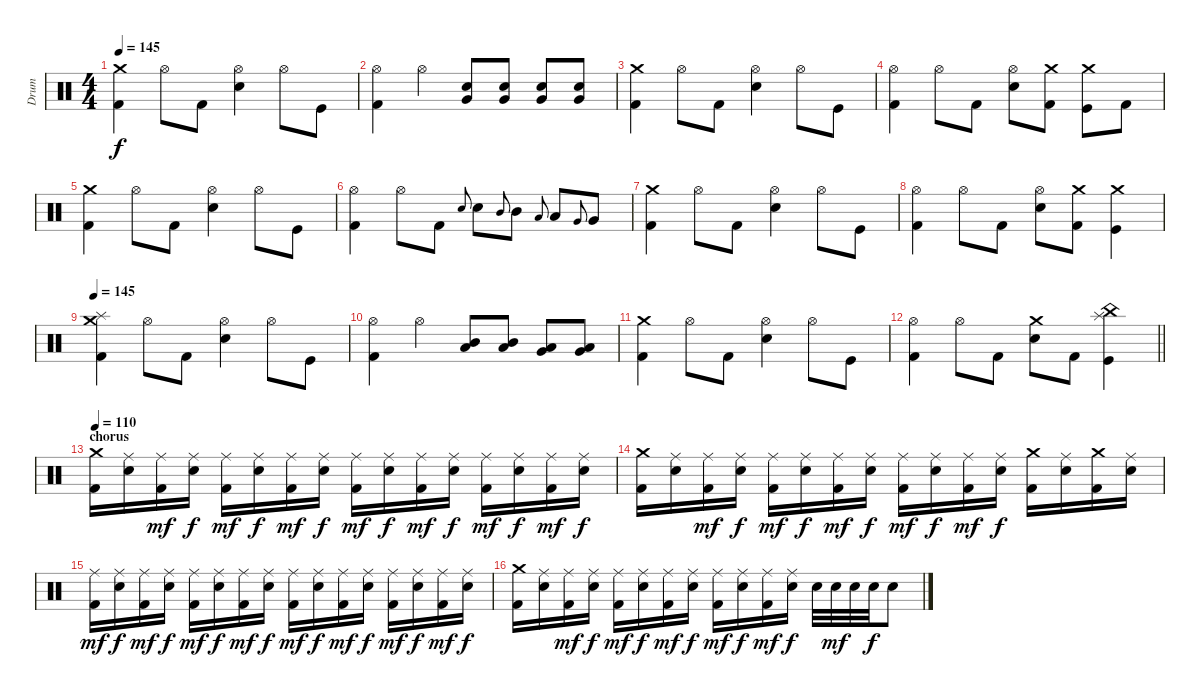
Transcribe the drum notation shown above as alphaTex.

\track ("Drum" "Drum") {instrument percussion}
\staff {score}
\articulation defaults
\ts (4 4)
\tempo 145
\clef neutral
\ks c
("Crash medium (hit)" "Kick (hit) 2").4{dy f} "Hi-Hat (open)".8 "Kick (hit) 2".8 ("Hi-Hat (open)" "Snare (hit) 2").4 "Hi-Hat (open)".8 "Kick (hit)".8 |
("Hi-Hat (open)" "Kick (hit) 2").4 "Hi-Hat (open)".4 ("Snare (hit) 2" "Very Low Tom (hit)").8 ("Snare (hit) 2" "Very Low Tom (hit)").8 ("Snare (hit) 2" "Very Low Tom (hit)").8 ("Snare (hit) 2" "Very Low Tom (hit)").8 |
("Crash medium (hit)" "Kick (hit) 2").4 "Hi-Hat (open)".8 "Kick (hit) 2".8 ("Hi-Hat (open)" "Snare (hit) 2").4 "Hi-Hat (open)".8 "Kick (hit)".8 |
("Hi-Hat (open)" "Kick (hit) 2").4 "Hi-Hat (open)".8 "Kick (hit) 2".8 ("Hi-Hat (open)" "Snare (hit) 2").8 ("Crash medium (hit)" "Kick (hit) 2").8 ("Crash medium (hit)" "Kick (hit)").8 "Kick (hit) 2".8 |
("Crash medium (hit)" "Kick (hit) 2").4 "Hi-Hat (open)".8 "Kick (hit) 2".8 ("Hi-Hat (open)" "Snare (hit) 2").4 "Hi-Hat (open)".8 "Kick (hit)".8 |
("Hi-Hat (open)" "Kick (hit) 2").4 "Hi-Hat (open)".8 "Kick (hit) 2".8 "Snare (hit) 2".8{gr onbeat} "Snare (hit) 2".8 "Mid Tom (hit)".8{gr onbeat} "Mid Tom (hit)".8 "Low Tom (hit)".8{gr onbeat} "Low Tom (hit)".8 "Very Low Tom (hit)".8{gr onbeat} "Very Low Tom (hit)".8 |
("Crash medium (hit)" "Kick (hit) 2").4 "Hi-Hat (open)".8 "Kick (hit) 2".8 ("Hi-Hat (open)" "Snare (hit) 2").4 "Hi-Hat (open)".8 "Kick (hit)".8 |
("Hi-Hat (open)" "Kick (hit) 2").4 "Hi-Hat (open)".8 "Kick (hit) 2".8 ("Hi-Hat (open)" "Snare (hit) 2").8 ("Crash medium (hit)" "Kick (hit) 2").8 ("Crash medium (hit)" "Kick (hit)").4 |
\tempo 145
("Splash (hit)" "Crash medium (hit)" "Kick (hit) 2").4 "Hi-Hat (open)".8 "Kick (hit) 2".8 ("Hi-Hat (open)" "Snare (hit) 2").4 "Hi-Hat (open)".8 "Kick (hit)".8 |
("Hi-Hat (open)" "Kick (hit) 2").4 "Hi-Hat (open)".4 ("Mid Tom (hit)" "Low Tom (hit)").8 ("Mid Tom (hit)" "Low Tom (hit)").8 ("Low Tom (hit)" "Very Low Tom (hit)").8 ("Low Tom (hit)" "Very Low Tom (hit)").8 |
("Crash medium (hit)" "Kick (hit) 2").4 "Hi-Hat (open)".8 "Kick (hit) 2".8 ("Hi-Hat (open)" "Snare (hit) 2").4 "Hi-Hat (open)".8 "Kick (hit)".8 |
\barLineRight lightlight
("Hi-Hat (open)" "Kick (hit) 2").4 "Hi-Hat (open)".8 "Kick (hit) 2".8 ("Crash medium (hit)" "Snare (hit) 2").8 "Kick (hit) 2".8 ("Splash (hit)" "China (hit)" "Kick (hit)").4 |
\section ("" "chorus")
\tempo 110
("Crash medium (hit)" "Kick (hit) 2").16 ("Ride (middle)" "Snare (hit) 2").16 ("Ride (middle)" "Kick (hit) 2").16{dy mf} ("Ride (middle)" "Snare (hit) 2").16{dy f} ("Ride (middle)" "Kick (hit) 2").16{dy mf} ("Ride (middle)" "Snare (hit) 2").16{dy f} ("Ride (middle)" "Kick (hit) 2").16{dy mf} ("Ride (middle)" "Snare (hit) 2").16{dy f} ("Ride (middle)" "Kick (hit) 2").16{dy mf} ("Ride (middle)" "Snare (hit) 2").16{dy f} ("Ride (middle)" "Kick (hit) 2").16{dy mf} ("Ride (middle)" "Snare (hit) 2").16{dy f} ("Ride (middle)" "Kick (hit) 2").16{dy mf} ("Ride (middle)" "Snare (hit) 2").16{dy f} ("Ride (middle)" "Kick (hit) 2").16{dy mf} ("Ride (middle)" "Snare (hit) 2").16{dy f} |
("Crash medium (hit)" "Kick (hit) 2").16 ("Ride (middle)" "Snare (hit) 2").16 ("Ride (middle)" "Kick (hit) 2").16{dy mf} ("Ride (middle)" "Snare (hit) 2").16{dy f} ("Ride (middle)" "Kick (hit) 2").16{dy mf} ("Ride (middle)" "Snare (hit) 2").16{dy f} ("Ride (middle)" "Kick (hit) 2").16{dy mf} ("Ride (middle)" "Snare (hit) 2").16{dy f} ("Ride (middle)" "Kick (hit) 2").16{dy mf} ("Ride (middle)" "Snare (hit) 2").16{dy f} ("Ride (middle)" "Kick (hit) 2").16{dy mf} ("Ride (middle)" "Snare (hit) 2").16{dy f} ("Crash medium (hit)" "Kick (hit) 2").16 ("Ride (middle)" "Snare (hit) 2").16 ("Crash medium (hit)" "Kick (hit) 2").16 ("Ride (middle)" "Snare (hit) 2").16 |
("Ride (middle)" "Kick (hit) 2").16{dy mf} ("Ride (middle)" "Snare (hit) 2").16{dy f} ("Ride (middle)" "Kick (hit) 2").16{dy mf} ("Ride (middle)" "Snare (hit) 2").16{dy f} ("Ride (middle)" "Kick (hit) 2").16{dy mf} ("Ride (middle)" "Snare (hit) 2").16{dy f} ("Ride (middle)" "Kick (hit) 2").16{dy mf} ("Ride (middle)" "Snare (hit) 2").16{dy f} ("Ride (middle)" "Kick (hit) 2").16{dy mf} ("Ride (middle)" "Snare (hit) 2").16{dy f} ("Ride (middle)" "Kick (hit) 2").16{dy mf} ("Ride (middle)" "Snare (hit) 2").16{dy f} ("Ride (middle)" "Kick (hit) 2").16{dy mf} ("Ride (middle)" "Snare (hit) 2").16{dy f} ("Ride (middle)" "Kick (hit) 2").16{dy mf} ("Ride (middle)" "Snare (hit) 2").16{dy f} |
("Crash medium (hit)" "Kick (hit) 2").16 ("Ride (middle)" "Snare (hit) 2").16 ("Ride (middle)" "Kick (hit) 2").16{dy mf} ("Ride (middle)" "Snare (hit) 2").16{dy f} ("Ride (middle)" "Kick (hit) 2").16{dy mf} ("Ride (middle)" "Snare (hit) 2").16{dy f} ("Ride (middle)" "Kick (hit) 2").16{dy mf} ("Ride (middle)" "Snare (hit) 2").16{dy f} ("Ride (middle)" "Kick (hit) 2").16{dy mf} ("Ride (middle)" "Snare (hit) 2").16{dy f} ("Ride (middle)" "Kick (hit) 2").16{dy mf} ("Ride (middle)" "Snare (hit) 2").16{dy f} "Snare (hit) 2".32 "Snare (hit) 2".32{dy mf} "Snare (hit) 2".32 "Snare (hit) 2".32{dy f} "Snare (hit) 2".8
